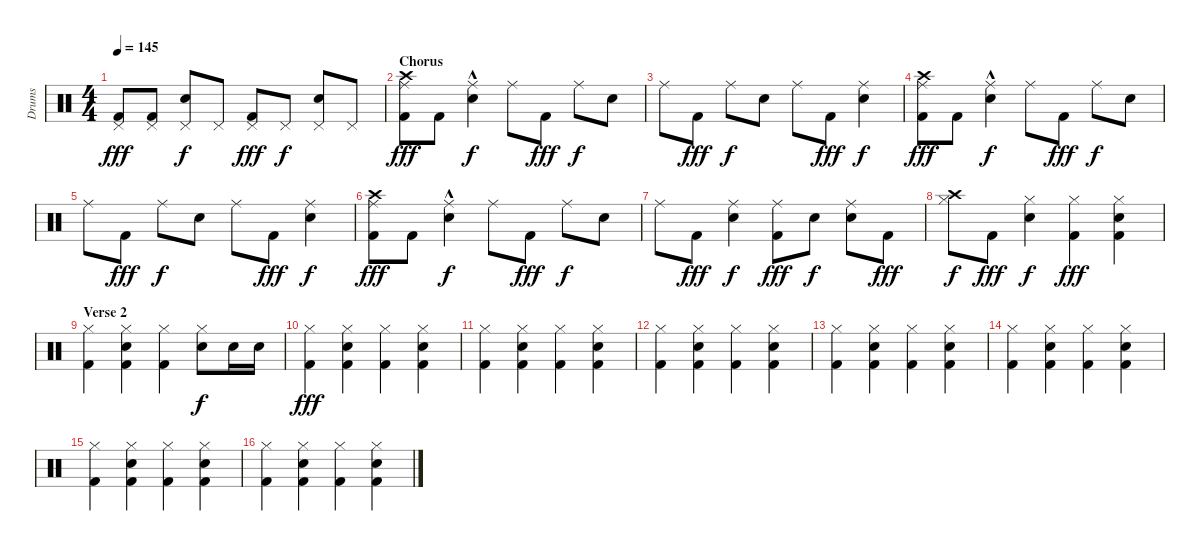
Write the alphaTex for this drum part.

\track ("Drums" "Drums") {instrument percussion}
\staff {score}
\articulation defaults
\ts (4 4)
\tempo 145
\clef neutral
\ks c
("Pedal Hi-Hat (hit)" "Kick (hit) 2").8{dy fff} ("Pedal Hi-Hat (hit)" "Kick (hit) 2").8 ("Pedal Hi-Hat (hit)" "Electric Snare (hit)").8{dy f} "Pedal Hi-Hat (hit)".8 ("Pedal Hi-Hat (hit)" "Kick (hit) 2").8{dy fff} "Pedal Hi-Hat (hit)".8{dy f} ("Pedal Hi-Hat (hit)" "Electric Snare (hit)").8 "Pedal Hi-Hat (hit)".8 |
\section ("" "Chorus")
("Crash high (hit)" "Ride (middle)" "Kick (hit) 2").8{dy fff} "Kick (hit) 2".8 ("Ride (middle)" "Electric Snare (hit)"{hac}).4{dy f} "Ride (middle)".8 "Kick (hit) 2".8{dy fff} "Ride (middle)".8{dy f} "Electric Snare (hit)".8 |
"Ride (middle)".8 "Kick (hit) 2".8{dy fff} "Ride (middle)".8{dy f} "Electric Snare (hit)".8 "Ride (middle)".8 "Kick (hit) 2".8{dy fff} ("Ride (middle)" "Electric Snare (hit)").4{dy f} |
("Crash high (hit)" "Ride (middle)" "Kick (hit) 2").8{dy fff} "Kick (hit) 2".8 ("Ride (middle)" "Electric Snare (hit)"{hac}).4{dy f} "Ride (middle)".8 "Kick (hit) 2".8{dy fff} "Ride (middle)".8{dy f} "Electric Snare (hit)".8 |
"Ride (middle)".8 "Kick (hit) 2".8{dy fff} "Ride (middle)".8{dy f} "Electric Snare (hit)".8 "Ride (middle)".8 "Kick (hit) 2".8{dy fff} ("Ride (middle)" "Electric Snare (hit)").4{dy f} |
("Crash high (hit)" "Ride (middle)" "Kick (hit) 2").8{dy fff} "Kick (hit) 2".8 ("Ride (middle)" "Electric Snare (hit)"{hac}).4{dy f} "Ride (middle)".8 "Kick (hit) 2".8{dy fff} "Ride (middle)".8{dy f} "Electric Snare (hit)".8 |
"Ride (middle)".8 "Kick (hit) 2".8{dy fff} ("Ride (middle)" "Electric Snare (hit)").4{dy f} ("Ride (middle)" "Kick (hit) 2").8{dy fff} "Electric Snare (hit)".8{dy f} ("Ride (middle)" "Electric Snare (hit)").8 "Kick (hit) 2".8{dy fff} |
("Crash high (hit)" "Hi-Hat (closed)").8{dy f} "Kick (hit) 2".8{dy fff} ("Hi-Hat (closed)" "Electric Snare (hit)").4{dy f} ("Hi-Hat (closed)" "Kick (hit) 2").4{dy fff} ("Hi-Hat (closed)" "Electric Snare (hit)" "Kick (hit) 2").4 |
\section ("" "Verse 2")
("Hi-Hat (closed)" "Kick (hit) 2").4 ("Hi-Hat (closed)" "Electric Snare (hit)" "Kick (hit) 2").4 ("Hi-Hat (closed)" "Kick (hit) 2").4 ("Hi-Hat (closed)" "Electric Snare (hit)").8{dy f} "Electric Snare (hit)".16 "Electric Snare (hit)".16 |
("Hi-Hat (closed)" "Kick (hit) 2").4{dy fff} ("Hi-Hat (closed)" "Electric Snare (hit)" "Kick (hit) 2").4 ("Hi-Hat (closed)" "Kick (hit) 2").4 ("Hi-Hat (closed)" "Electric Snare (hit)" "Kick (hit) 2").4 |
("Hi-Hat (closed)" "Kick (hit) 2").4 ("Hi-Hat (closed)" "Electric Snare (hit)" "Kick (hit) 2").4 ("Hi-Hat (closed)" "Kick (hit) 2").4 ("Hi-Hat (closed)" "Electric Snare (hit)" "Kick (hit) 2").4 |
("Hi-Hat (closed)" "Kick (hit) 2").4 ("Hi-Hat (closed)" "Electric Snare (hit)" "Kick (hit) 2").4 ("Hi-Hat (closed)" "Kick (hit) 2").4 ("Hi-Hat (closed)" "Electric Snare (hit)" "Kick (hit) 2").4 |
("Hi-Hat (closed)" "Kick (hit) 2").4 ("Hi-Hat (closed)" "Electric Snare (hit)" "Kick (hit) 2").4 ("Hi-Hat (closed)" "Kick (hit) 2").4 ("Hi-Hat (closed)" "Electric Snare (hit)" "Kick (hit) 2").4 |
("Hi-Hat (closed)" "Kick (hit) 2").4 ("Hi-Hat (closed)" "Electric Snare (hit)" "Kick (hit) 2").4 ("Hi-Hat (closed)" "Kick (hit) 2").4 ("Hi-Hat (closed)" "Electric Snare (hit)" "Kick (hit) 2").4 |
("Hi-Hat (closed)" "Kick (hit) 2").4 ("Hi-Hat (closed)" "Electric Snare (hit)" "Kick (hit) 2").4 ("Hi-Hat (closed)" "Kick (hit) 2").4 ("Hi-Hat (closed)" "Electric Snare (hit)" "Kick (hit) 2").4 |
("Hi-Hat (closed)" "Kick (hit) 2").4 ("Hi-Hat (closed)" "Electric Snare (hit)" "Kick (hit) 2").4 ("Hi-Hat (closed)" "Kick (hit) 2").4 ("Hi-Hat (closed)" "Electric Snare (hit)" "Kick (hit) 2").4
